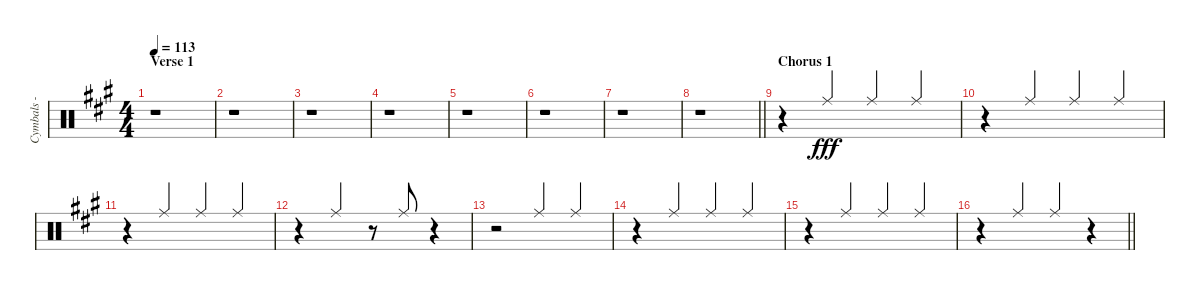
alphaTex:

\track ("Cymbals - ride" "Cymbals - ") {instrument percussion}
\staff {score}
\articulation defaults
\ts (4 4)
\section ("" "Verse 1")
\tempo 113
\clef neutral
\ks f#minor
r.1{dy fff} |
r.1 |
r.1 |
r.1 |
r.1 |
r.1 |
r.1 |
\barLineRight lightlight
r.1{volume 7 balance 6} |
\section ("" "Chorus 1")
r.4 "Ride (middle)".4{beam Up} "Ride (middle)".4{beam Up} "Ride (middle)".4{beam Up} |
r.4 "Ride (middle)".4{beam Up} "Ride (middle)".4{beam Up} "Ride (middle)".4{beam Up} |
r.4 "Ride (middle)".4{beam Up} "Ride (middle)".4{beam Up} "Ride (middle)".4{beam Up} |
r.4 "Ride (middle)".4{beam Up} r.8 "Ride (middle)".8{beam Up} r.4 |
r.2 "Ride (middle)".4{beam Up} "Ride (middle)".4{beam Up} |
r.4 "Ride (middle)".4{beam Up} "Ride (middle)".4{beam Up} "Ride (middle)".4{beam Up} |
r.4 "Ride (middle)".4{beam Up} "Ride (middle)".4{beam Up} "Ride (middle)".4{beam Up} |
\barLineRight lightlight
r.4 "Ride (middle)".4{beam Up} "Ride (middle)".4{beam Up} r.4
